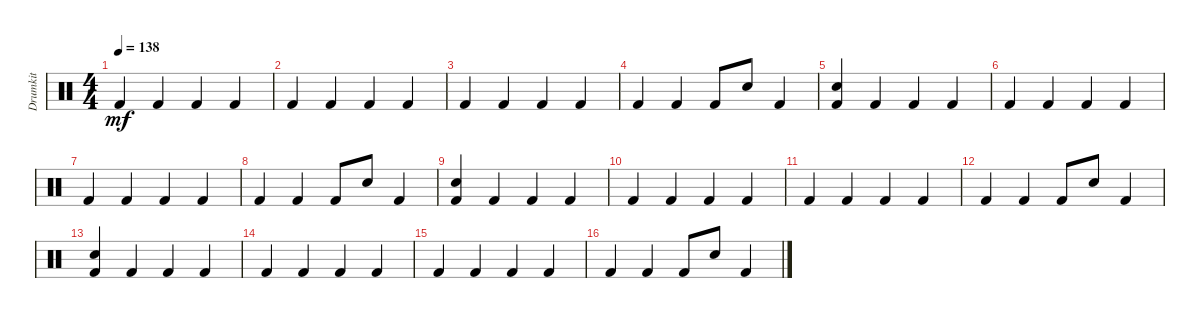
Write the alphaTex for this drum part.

\track ("Drumkit" "Drumkit") {instrument percussion}
\staff {score}
\articulation defaults
\ts (4 4)
\tempo 138
\clef neutral
\ks c "Kick (hit) 2".4{dy mf} "Kick (hit) 2".4 "Kick (hit) 2".4 "Kick (hit) 2".4
|
"Kick (hit) 2".4 "Kick (hit) 2".4 "Kick (hit) 2".4 "Kick (hit) 2".4 |
"Kick (hit) 2".4 "Kick (hit) 2".4 "Kick (hit) 2".4 "Kick (hit) 2".4 |
"Kick (hit) 2".4 "Kick (hit) 2".4 "Kick (hit) 2".8 "Snare (hit) 2".8 "Kick (hit) 2".4 |
("Kick (hit) 2" "Snare (hit) 2").4 "Kick (hit) 2".4 "Kick (hit) 2".4 "Kick (hit) 2".4 |
"Kick (hit) 2".4 "Kick (hit) 2".4 "Kick (hit) 2".4 "Kick (hit) 2".4 |
"Kick (hit) 2".4 "Kick (hit) 2".4 "Kick (hit) 2".4 "Kick (hit) 2".4 |
"Kick (hit) 2".4 "Kick (hit) 2".4 "Kick (hit) 2".8 "Snare (hit) 2".8 "Kick (hit) 2".4 |
("Kick (hit) 2" "Snare (hit) 2").4 "Kick (hit) 2".4 "Kick (hit) 2".4 "Kick (hit) 2".4 |
"Kick (hit) 2".4 "Kick (hit) 2".4 "Kick (hit) 2".4 "Kick (hit) 2".4 |
"Kick (hit) 2".4 "Kick (hit) 2".4 "Kick (hit) 2".4 "Kick (hit) 2".4 |
"Kick (hit) 2".4 "Kick (hit) 2".4 "Kick (hit) 2".8 "Snare (hit) 2".8 "Kick (hit) 2".4 |
("Kick (hit) 2" "Snare (hit) 2").4 "Kick (hit) 2".4 "Kick (hit) 2".4 "Kick (hit) 2".4 |
"Kick (hit) 2".4 "Kick (hit) 2".4 "Kick (hit) 2".4 "Kick (hit) 2".4 |
"Kick (hit) 2".4 "Kick (hit) 2".4 "Kick (hit) 2".4 "Kick (hit) 2".4 |
"Kick (hit) 2".4 "Kick (hit) 2".4 "Kick (hit) 2".8 "Snare (hit) 2".8 "Kick (hit) 2".4
